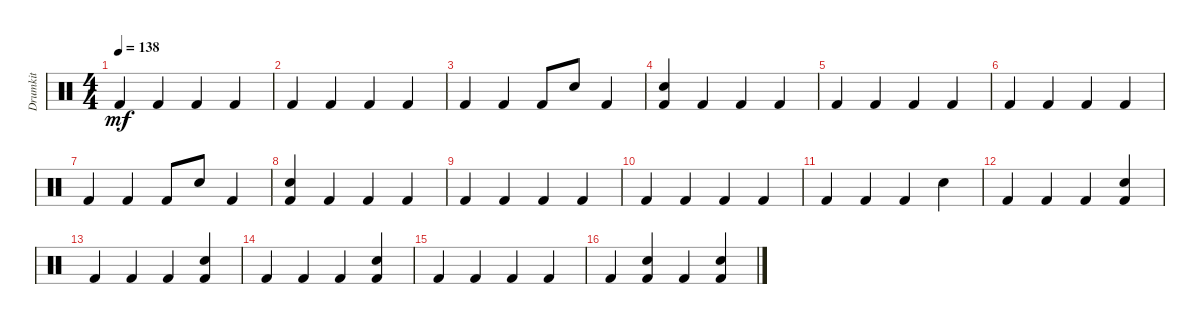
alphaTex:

\track ("Drumkit" "Drumkit") {instrument percussion}
\staff {score}
\articulation defaults
\ts (4 4)
\tempo 138
\clef neutral
\ks c "Kick (hit) 2".4{dy mf} "Kick (hit) 2".4 "Kick (hit) 2".4 "Kick (hit) 2".4
|
"Kick (hit) 2".4 "Kick (hit) 2".4 "Kick (hit) 2".4 "Kick (hit) 2".4 |
"Kick (hit) 2".4 "Kick (hit) 2".4 "Kick (hit) 2".8 "Snare (hit) 2".8 "Kick (hit) 2".4 |
("Kick (hit) 2" "Snare (hit) 2").4 "Kick (hit) 2".4 "Kick (hit) 2".4 "Kick (hit) 2".4 |
"Kick (hit) 2".4 "Kick (hit) 2".4 "Kick (hit) 2".4 "Kick (hit) 2".4 |
"Kick (hit) 2".4 "Kick (hit) 2".4 "Kick (hit) 2".4 "Kick (hit) 2".4 |
"Kick (hit) 2".4 "Kick (hit) 2".4 "Kick (hit) 2".8 "Snare (hit) 2".8 "Kick (hit) 2".4 |
("Kick (hit) 2" "Snare (hit) 2").4 "Kick (hit) 2".4 "Kick (hit) 2".4 "Kick (hit) 2".4 |
"Kick (hit) 2".4 "Kick (hit) 2".4 "Kick (hit) 2".4 "Kick (hit) 2".4 |
"Kick (hit) 2".4 "Kick (hit) 2".4 "Kick (hit) 2".4 "Kick (hit) 2".4 |
"Kick (hit) 2".4 "Kick (hit) 2".4 "Kick (hit) 2".4 "Snare (hit) 2".4 |
"Kick (hit) 2".4 "Kick (hit) 2".4 "Kick (hit) 2".4 ("Kick (hit) 2" "Snare (hit) 2").4 |
"Kick (hit) 2".4 "Kick (hit) 2".4 "Kick (hit) 2".4 ("Kick (hit) 2" "Snare (hit) 2").4 |
"Kick (hit) 2".4 "Kick (hit) 2".4 "Kick (hit) 2".4 ("Kick (hit) 2" "Snare (hit) 2").4 |
"Kick (hit) 2".4 "Kick (hit) 2".4 "Kick (hit) 2".4 "Kick (hit) 2".4 |
"Kick (hit) 2".4 ("Kick (hit) 2" "Snare (hit) 2").4 "Kick (hit) 2".4 ("Kick (hit) 2" "Snare (hit) 2").4
